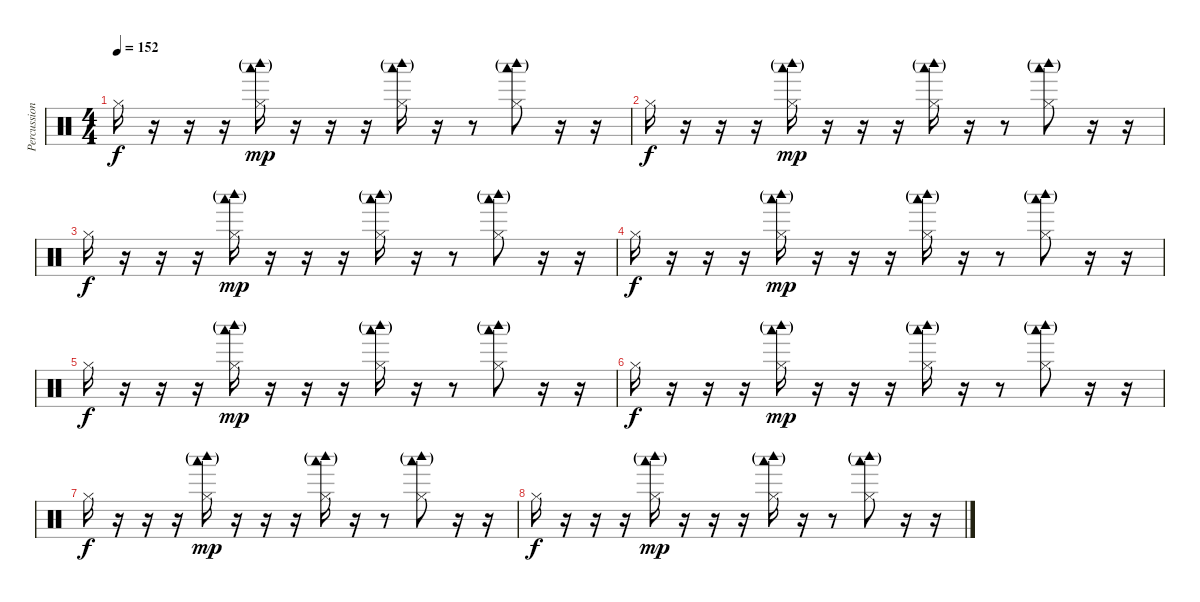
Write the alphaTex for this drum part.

\track ("Percussion" "Percussion") {instrument percussion}
\staff {score}
\articulation defaults
\ts (4 4)
\tempo 152
\clef neutral
\ks c "Hi-Hat (closed)".16{dy f}
r.16 r.16 r.16 ("Hi-Hat (closed)" "Woodblock high (hit)"{g} "Woodblock low (hit)"{g}).16{dy mp} r.16 r.16 r.16 ("Hi-Hat (closed)" "Woodblock high (hit)"{g} "Woodblock low (hit)"{g}).16 r.16 r.8 ("Hi-Hat (closed)" "Woodblock high (hit)"{g} "Woodblock low (hit)"{g}).8 r.16 r.16 |
"Hi-Hat (closed)".16{dy f} r.16 r.16 r.16 ("Hi-Hat (closed)" "Woodblock high (hit)"{g} "Woodblock low (hit)"{g}).16{dy mp} r.16 r.16 r.16 ("Hi-Hat (closed)" "Woodblock high (hit)"{g} "Woodblock low (hit)"{g}).16 r.16 r.8 ("Hi-Hat (closed)" "Woodblock high (hit)"{g} "Woodblock low (hit)"{g}).8 r.16 r.16 |
"Hi-Hat (closed)".16{dy f} r.16 r.16 r.16 ("Hi-Hat (closed)" "Woodblock high (hit)"{g} "Woodblock low (hit)"{g}).16{dy mp} r.16 r.16 r.16 ("Hi-Hat (closed)" "Woodblock high (hit)"{g} "Woodblock low (hit)"{g}).16 r.16 r.8 ("Hi-Hat (closed)" "Woodblock high (hit)"{g} "Woodblock low (hit)"{g}).8 r.16 r.16 |
"Hi-Hat (closed)".16{dy f} r.16 r.16 r.16 ("Hi-Hat (closed)" "Woodblock high (hit)"{g} "Woodblock low (hit)"{g}).16{dy mp} r.16 r.16 r.16 ("Hi-Hat (closed)" "Woodblock high (hit)"{g} "Woodblock low (hit)"{g}).16 r.16 r.8 ("Hi-Hat (closed)" "Woodblock high (hit)"{g} "Woodblock low (hit)"{g}).8 r.16 r.16 |
"Hi-Hat (closed)".16{dy f} r.16 r.16 r.16 ("Hi-Hat (closed)" "Woodblock high (hit)"{g} "Woodblock low (hit)"{g}).16{dy mp} r.16 r.16 r.16 ("Hi-Hat (closed)" "Woodblock high (hit)"{g} "Woodblock low (hit)"{g}).16 r.16 r.8 ("Hi-Hat (closed)" "Woodblock high (hit)"{g} "Woodblock low (hit)"{g}).8 r.16 r.16 |
"Hi-Hat (closed)".16{dy f} r.16 r.16 r.16 ("Hi-Hat (closed)" "Woodblock high (hit)"{g} "Woodblock low (hit)"{g}).16{dy mp} r.16 r.16 r.16 ("Hi-Hat (closed)" "Woodblock high (hit)"{g} "Woodblock low (hit)"{g}).16 r.16 r.8 ("Hi-Hat (closed)" "Woodblock high (hit)"{g} "Woodblock low (hit)"{g}).8 r.16 r.16 |
"Hi-Hat (closed)".16{dy f} r.16 r.16 r.16 ("Hi-Hat (closed)" "Woodblock high (hit)"{g} "Woodblock low (hit)"{g}).16{dy mp} r.16 r.16 r.16 ("Hi-Hat (closed)" "Woodblock high (hit)"{g} "Woodblock low (hit)"{g}).16 r.16 r.8 ("Hi-Hat (closed)" "Woodblock high (hit)"{g} "Woodblock low (hit)"{g}).8 r.16 r.16 |
"Hi-Hat (closed)".16{dy f} r.16 r.16 r.16 ("Hi-Hat (closed)" "Woodblock high (hit)"{g} "Woodblock low (hit)"{g}).16{dy mp} r.16 r.16 r.16 ("Hi-Hat (closed)" "Woodblock high (hit)"{g} "Woodblock low (hit)"{g}).16 r.16 r.8 ("Hi-Hat (closed)" "Woodblock high (hit)"{g} "Woodblock low (hit)"{g}).8 r.16 r.16
